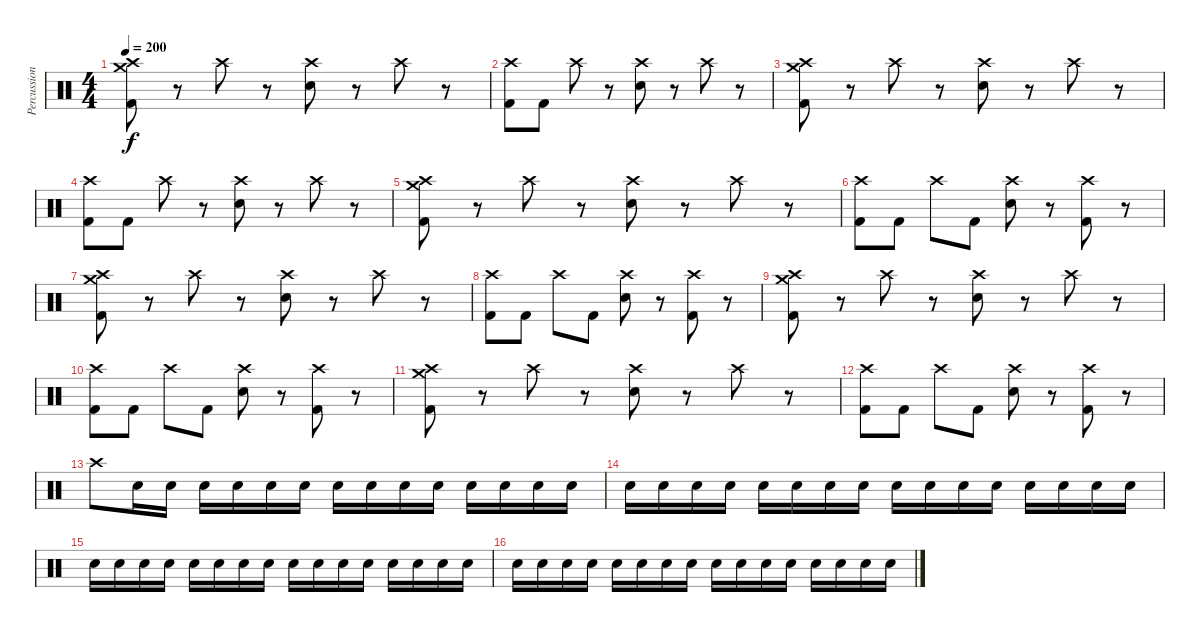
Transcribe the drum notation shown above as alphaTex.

\track ("Percussion" "Percussion") {instrument percussion}
\staff {score}
\articulation defaults
\ts (4 4)
\tempo 200
\clef neutral
\ks c
("Crash medium (hit)" "Crash high (hit)" "Kick (hit) 2").8{dy f} r.8 "Crash high (hit)".8 r.8 ("Crash high (hit)" "Electric Snare (hit)").8 r.8 "Crash high (hit)".8 r.8 |
("Crash high (hit)" "Kick (hit) 2").8 "Kick (hit) 2".8 "Crash high (hit)".8 r.8 ("Crash high (hit)" "Electric Snare (hit)").8 r.8 "Crash high (hit)".8 r.8 |
("Crash medium (hit)" "Crash high (hit)" "Kick (hit) 2").8 r.8 "Crash high (hit)".8 r.8 ("Crash high (hit)" "Electric Snare (hit)").8 r.8 "Crash high (hit)".8 r.8 |
("Crash high (hit)" "Kick (hit) 2").8 "Kick (hit) 2".8 "Crash high (hit)".8 r.8 ("Crash high (hit)" "Electric Snare (hit)").8 r.8 "Crash high (hit)".8 r.8 |
("Crash medium (hit)" "Crash high (hit)" "Kick (hit) 2").8 r.8 "Crash high (hit)".8 r.8 ("Crash high (hit)" "Electric Snare (hit)").8 r.8 "Crash high (hit)".8 r.8 |
("Crash high (hit)" "Kick (hit) 2").8 "Kick (hit) 2".8 "Crash high (hit)".8 "Kick (hit) 2".8 ("Crash high (hit)" "Electric Snare (hit)").8 r.8 ("Crash high (hit)" "Kick (hit) 2").8 r.8 |
("Crash medium (hit)" "Crash high (hit)" "Kick (hit) 2").8 r.8 "Crash high (hit)".8 r.8 ("Crash high (hit)" "Electric Snare (hit)").8 r.8 "Crash high (hit)".8 r.8 |
("Crash high (hit)" "Kick (hit) 2").8 "Kick (hit) 2".8 "Crash high (hit)".8 "Kick (hit) 2".8 ("Crash high (hit)" "Electric Snare (hit)").8 r.8 ("Crash high (hit)" "Kick (hit) 2").8 r.8 |
("Crash medium (hit)" "Crash high (hit)" "Kick (hit) 2").8 r.8 "Crash high (hit)".8 r.8 ("Crash high (hit)" "Electric Snare (hit)").8 r.8 "Crash high (hit)".8 r.8 |
("Crash high (hit)" "Kick (hit) 2").8 "Kick (hit) 2".8 "Crash high (hit)".8 "Kick (hit) 2".8 ("Crash high (hit)" "Electric Snare (hit)").8 r.8 ("Crash high (hit)" "Kick (hit) 2").8 r.8 |
("Crash medium (hit)" "Crash high (hit)" "Kick (hit) 2").8 r.8 "Crash high (hit)".8 r.8 ("Crash high (hit)" "Electric Snare (hit)").8 r.8 "Crash high (hit)".8 r.8 |
("Crash high (hit)" "Kick (hit) 2").8 "Kick (hit) 2".8 "Crash high (hit)".8 "Kick (hit) 2".8 ("Crash high (hit)" "Electric Snare (hit)").8 r.8 ("Crash high (hit)" "Kick (hit) 2").8 r.8 |
"Crash high (hit)".8 "Electric Snare (hit)".16 "Electric Snare (hit)".16 "Electric Snare (hit)".16 "Electric Snare (hit)".16 "Electric Snare (hit)".16 "Electric Snare (hit)".16 "Electric Snare (hit)".16 "Electric Snare (hit)".16 "Electric Snare (hit)".16 "Electric Snare (hit)".16 "Electric Snare (hit)".16 "Electric Snare (hit)".16 "Electric Snare (hit)".16 "Electric Snare (hit)".16 |
"Electric Snare (hit)".16 "Electric Snare (hit)".16 "Electric Snare (hit)".16 "Electric Snare (hit)".16 "Electric Snare (hit)".16 "Electric Snare (hit)".16 "Electric Snare (hit)".16 "Electric Snare (hit)".16 "Electric Snare (hit)".16 "Electric Snare (hit)".16 "Electric Snare (hit)".16 "Electric Snare (hit)".16 "Electric Snare (hit)".16 "Electric Snare (hit)".16 "Electric Snare (hit)".16 "Electric Snare (hit)".16 |
"Electric Snare (hit)".16 "Electric Snare (hit)".16 "Electric Snare (hit)".16 "Electric Snare (hit)".16 "Electric Snare (hit)".16 "Electric Snare (hit)".16 "Electric Snare (hit)".16 "Electric Snare (hit)".16 "Electric Snare (hit)".16 "Electric Snare (hit)".16 "Electric Snare (hit)".16 "Electric Snare (hit)".16 "Electric Snare (hit)".16 "Electric Snare (hit)".16 "Electric Snare (hit)".16 "Electric Snare (hit)".16 |
"Electric Snare (hit)".16 "Electric Snare (hit)".16 "Electric Snare (hit)".16 "Electric Snare (hit)".16 "Electric Snare (hit)".16 "Electric Snare (hit)".16 "Electric Snare (hit)".16 "Electric Snare (hit)".16 "Electric Snare (hit)".16 "Electric Snare (hit)".16 "Electric Snare (hit)".16 "Electric Snare (hit)".16 "Electric Snare (hit)".16 "Electric Snare (hit)".16 "Electric Snare (hit)".16 "Electric Snare (hit)".16
